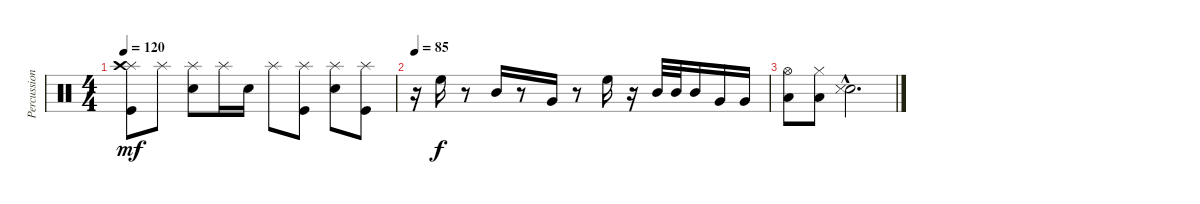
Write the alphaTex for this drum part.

\track ("Percussions" "Percussion") {instrument percussion}
\staff {score}
\articulation defaults
\ts (4 4)
\tempo 120
\clef neutral
\ks c
("Splash (hit)" "Crash high (hit)" "Kick (hit)").8{dy mf} "Splash (hit)".8 ("Electric Snare (hit)" "Splash (hit)").8 "Splash (hit)".16 "Electric Snare (hit)".16 "Splash (hit)".8 ("Kick (hit)" "Splash (hit)").8 ("Electric Snare (hit)" "Splash (hit)").8 ("Kick (hit)" "Splash (hit)").8 |
\tempo 85
r.16 "High Floor Tom (hit)".16{dy f} r.8 "Mid Tom (hit)".16 r.8 "Very Low Tom (hit)".16 r.8 "High Floor Tom (hit)".16 r.16 "Mid Tom (hit)".32 "Mid Tom (hit)".32 "Mid Tom (hit)".16 "Very Low Tom (hit)".16 "Very Low Tom (hit)".16 |
("Low Tom (hit)" "Hi-Hat (open)").8 ("Low Tom (hit)" "Hi-Hat (closed)").8 ("Snare (hit) 2"{hac} "Snare (side stick) 3"{hac}).2{d}
